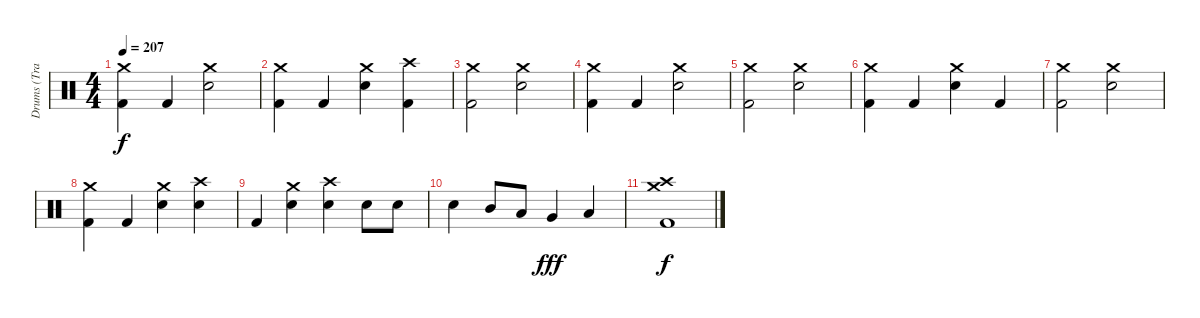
\track ("Drums (Travis)" "Drums (Tra") {instrument percussion}
\staff {score}
\articulation defaults
\ts (4 4)
\tempo 207
\clef neutral
\ks c
("Crash medium (hit)" "Kick (hit) 2").4{dy f} "Kick (hit) 2".4 ("Crash medium (hit)" "Snare (hit) 2").2 |
("Crash medium (hit)" "Kick (hit) 2").4 "Kick (hit) 2".4 ("Crash medium (hit)" "Snare (hit) 2").4 ("Crash high (hit)" "Kick (hit) 2").4 |
("Crash medium (hit)" "Kick (hit) 2").2 ("Crash medium (hit)" "Snare (hit) 2").2 |
("Crash medium (hit)" "Kick (hit) 2").4 "Kick (hit) 2".4 ("Crash medium (hit)" "Snare (hit) 2").2 |
("Crash medium (hit)" "Kick (hit) 2").2 ("Crash medium (hit)" "Snare (hit) 2").2 |
("Crash medium (hit)" "Kick (hit) 2").4 "Kick (hit) 2".4 ("Crash medium (hit)" "Snare (hit) 2").4 "Kick (hit) 2".4 |
("Crash medium (hit)" "Kick (hit) 2").2 ("Crash medium (hit)" "Snare (hit) 2").2 |
("Crash medium (hit)" "Kick (hit) 2").4 "Kick (hit) 2".4 ("Crash medium (hit)" "Snare (hit) 2").4 ("Crash high (hit)" "Snare (hit) 2").4 |
"Kick (hit) 2".4 ("Crash medium (hit)" "Snare (hit) 2").4 ("Crash high (hit)" "Snare (hit) 2").4 "Snare (hit) 2".8 "Snare (hit) 2".8 |
"Snare (hit) 2".4 "Mid Tom (hit)".8 "Low Tom (hit)".8 "Very Low Tom (hit)".4{dy fff} "Low Floor Tom (hit)".4 |
("Crash medium (hit)" "Crash high (hit)" "Kick (hit) 2").1{dy f}
